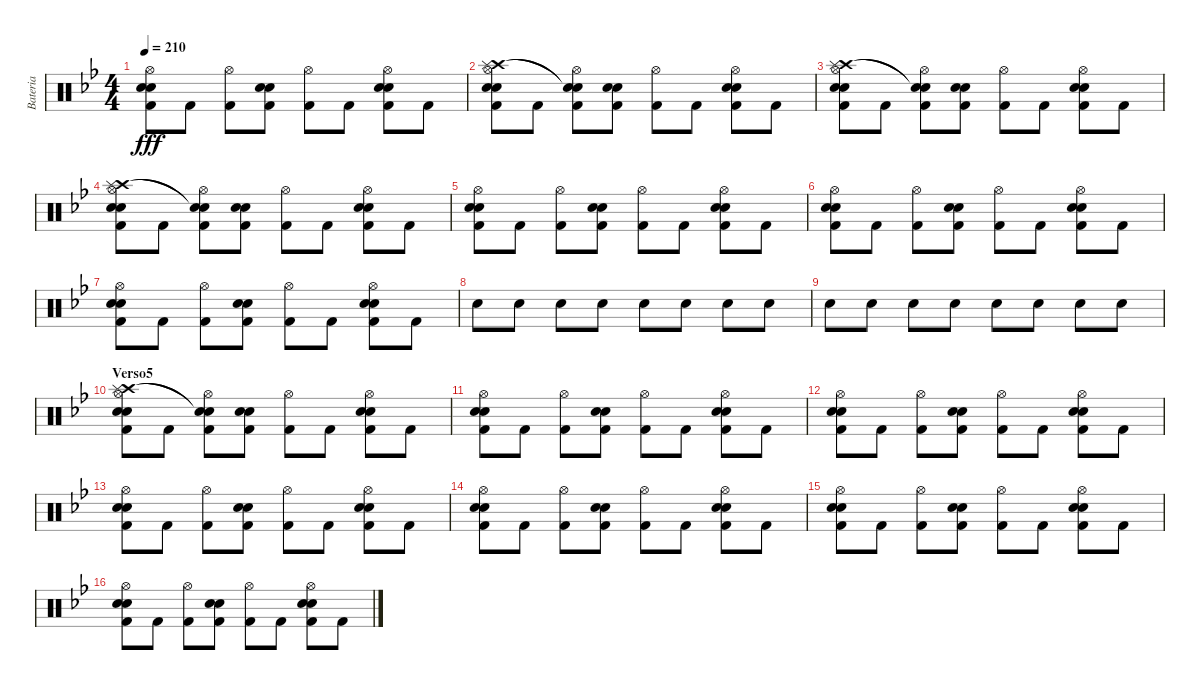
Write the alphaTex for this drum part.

\track ("Bateria" "Bateria") {instrument percussion}
\staff {score}
\articulation defaults
\ts (4 4)
\tempo 210
\clef neutral
\ks gminor
("Hi-Hat (open)" "Snare (hit) 2" "Kick (hit) 2" "Electric Snare (hit)").8{dy fff} "Kick (hit) 2".8 ("Hi-Hat (open)" "Kick (hit) 2").8 ("Snare (hit) 2" "Kick (hit) 2" "Electric Snare (hit)").8 ("Hi-Hat (open)" "Kick (hit) 2").8 "Kick (hit) 2".8 ("Hi-Hat (open)" "Snare (hit) 2" "Kick (hit) 2" "Electric Snare (hit)").8 "Kick (hit) 2".8 |
("Hi-Hat (open)" "Crash high (hit)" "Splash (hit)" "Snare (hit) 2" "Kick (hit) 2" "Electric Snare (hit)").8 "Kick (hit) 2".8 ("Hi-Hat (open)" "Snare (hit)"{t} "Snare (hit)"{t} "Kick (hit) 2").8 ("Snare (hit) 2" "Kick (hit) 2" "Electric Snare (hit)").8 ("Hi-Hat (open)" "Kick (hit) 2").8 "Kick (hit) 2".8 ("Hi-Hat (open)" "Snare (hit) 2" "Kick (hit) 2" "Electric Snare (hit)").8 "Kick (hit) 2".8 |
("Hi-Hat (open)" "Crash high (hit)" "Splash (hit)" "Snare (hit) 2" "Kick (hit) 2" "Electric Snare (hit)").8 "Kick (hit) 2".8 ("Hi-Hat (open)" "Snare (hit)"{t} "Snare (hit)"{t} "Kick (hit) 2").8 ("Snare (hit) 2" "Kick (hit) 2" "Electric Snare (hit)").8 ("Hi-Hat (open)" "Kick (hit) 2").8 "Kick (hit) 2".8 ("Hi-Hat (open)" "Snare (hit) 2" "Kick (hit) 2" "Electric Snare (hit)").8 "Kick (hit) 2".8 |
("Hi-Hat (open)" "Crash high (hit)" "Splash (hit)" "Snare (hit) 2" "Kick (hit) 2" "Electric Snare (hit)").8 "Kick (hit) 2".8 ("Hi-Hat (open)" "Snare (hit)"{t} "Snare (hit)"{t} "Kick (hit) 2").8 ("Snare (hit) 2" "Kick (hit) 2" "Electric Snare (hit)").8 ("Hi-Hat (open)" "Kick (hit) 2").8 "Kick (hit) 2".8 ("Hi-Hat (open)" "Snare (hit) 2" "Kick (hit) 2" "Electric Snare (hit)").8 "Kick (hit) 2".8 |
("Hi-Hat (open)" "Snare (hit) 2" "Kick (hit) 2" "Electric Snare (hit)").8 "Kick (hit) 2".8 ("Hi-Hat (open)" "Kick (hit) 2").8 ("Snare (hit) 2" "Kick (hit) 2" "Electric Snare (hit)").8 ("Hi-Hat (open)" "Kick (hit) 2").8 "Kick (hit) 2".8 ("Hi-Hat (open)" "Snare (hit) 2" "Kick (hit) 2" "Electric Snare (hit)").8 "Kick (hit) 2".8 |
("Hi-Hat (open)" "Snare (hit) 2" "Kick (hit) 2" "Electric Snare (hit)").8 "Kick (hit) 2".8 ("Hi-Hat (open)" "Kick (hit) 2").8 ("Snare (hit) 2" "Kick (hit) 2" "Electric Snare (hit)").8 ("Hi-Hat (open)" "Kick (hit) 2").8 "Kick (hit) 2".8 ("Hi-Hat (open)" "Snare (hit) 2" "Kick (hit) 2" "Electric Snare (hit)").8 "Kick (hit) 2".8 |
("Hi-Hat (open)" "Snare (hit) 2" "Kick (hit) 2" "Electric Snare (hit)").8 "Kick (hit) 2".8 ("Hi-Hat (open)" "Kick (hit) 2").8 ("Snare (hit) 2" "Kick (hit) 2" "Electric Snare (hit)").8 ("Hi-Hat (open)" "Kick (hit) 2").8 "Kick (hit) 2".8 ("Hi-Hat (open)" "Snare (hit) 2" "Kick (hit) 2" "Electric Snare (hit)").8 "Kick (hit) 2".8 |
"Snare (hit) 2".8 "Electric Snare (hit)".8 "Electric Snare (hit)".8 "Snare (hit) 2".8 "Electric Snare (hit)".8 "Electric Snare (hit)".8 "Snare (hit) 2".8 "Electric Snare (hit)".8 |
"Electric Snare (hit)".8 "Snare (hit) 2".8 "Snare (hit) 2".8 "Snare (hit) 2".8 "Snare (hit) 2".8 "Snare (hit) 2".8 "Snare (hit) 2".8 "Snare (hit) 2".8 |
\section ("" "Verso5")
("Hi-Hat (open)" "Crash high (hit)" "Splash (hit)" "Snare (hit) 2" "Electric Snare (hit)" "Kick (hit) 2").8 "Kick (hit) 2".8 ("Hi-Hat (open)" "Snare (hit)"{t} "Snare (hit)"{t} "Kick (hit) 2").8 ("Snare (hit) 2" "Electric Snare (hit)" "Kick (hit) 2").8 ("Hi-Hat (open)" "Kick (hit) 2").8 "Kick (hit) 2".8 ("Hi-Hat (open)" "Snare (hit) 2" "Electric Snare (hit)" "Kick (hit) 2").8 "Kick (hit) 2".8 |
("Hi-Hat (open)" "Snare (hit) 2" "Kick (hit) 2" "Electric Snare (hit)").8 "Kick (hit) 2".8 ("Hi-Hat (open)" "Kick (hit) 2").8 ("Snare (hit) 2" "Kick (hit) 2" "Electric Snare (hit)").8 ("Hi-Hat (open)" "Kick (hit) 2").8 "Kick (hit) 2".8 ("Hi-Hat (open)" "Snare (hit) 2" "Kick (hit) 2" "Electric Snare (hit)").8 "Kick (hit) 2".8 |
("Hi-Hat (open)" "Snare (hit) 2" "Kick (hit) 2" "Electric Snare (hit)").8 "Kick (hit) 2".8 ("Hi-Hat (open)" "Kick (hit) 2").8 ("Snare (hit) 2" "Kick (hit) 2" "Electric Snare (hit)").8 ("Hi-Hat (open)" "Kick (hit) 2").8 "Kick (hit) 2".8 ("Hi-Hat (open)" "Snare (hit) 2" "Kick (hit) 2" "Electric Snare (hit)").8 "Kick (hit) 2".8 |
("Hi-Hat (open)" "Snare (hit) 2" "Kick (hit) 2" "Electric Snare (hit)").8 "Kick (hit) 2".8 ("Hi-Hat (open)" "Kick (hit) 2").8 ("Snare (hit) 2" "Kick (hit) 2" "Electric Snare (hit)").8 ("Hi-Hat (open)" "Kick (hit) 2").8 "Kick (hit) 2".8 ("Hi-Hat (open)" "Snare (hit) 2" "Kick (hit) 2" "Electric Snare (hit)").8 "Kick (hit) 2".8 |
("Hi-Hat (open)" "Snare (hit) 2" "Kick (hit) 2" "Electric Snare (hit)").8 "Kick (hit) 2".8 ("Hi-Hat (open)" "Kick (hit) 2").8 ("Snare (hit) 2" "Kick (hit) 2" "Electric Snare (hit)").8 ("Hi-Hat (open)" "Kick (hit) 2").8 "Kick (hit) 2".8 ("Hi-Hat (open)" "Snare (hit) 2" "Kick (hit) 2" "Electric Snare (hit)").8 "Kick (hit) 2".8 |
("Hi-Hat (open)" "Snare (hit) 2" "Kick (hit) 2" "Electric Snare (hit)").8 "Kick (hit) 2".8 ("Hi-Hat (open)" "Kick (hit) 2").8 ("Snare (hit) 2" "Kick (hit) 2" "Electric Snare (hit)").8 ("Hi-Hat (open)" "Kick (hit) 2").8 "Kick (hit) 2".8 ("Hi-Hat (open)" "Snare (hit) 2" "Kick (hit) 2" "Electric Snare (hit)").8 "Kick (hit) 2".8 |
("Hi-Hat (open)" "Snare (hit) 2" "Kick (hit) 2" "Electric Snare (hit)").8 "Kick (hit) 2".8 ("Hi-Hat (open)" "Kick (hit) 2").8 ("Snare (hit) 2" "Kick (hit) 2" "Electric Snare (hit)").8 ("Hi-Hat (open)" "Kick (hit) 2").8 "Kick (hit) 2".8 ("Hi-Hat (open)" "Snare (hit) 2" "Kick (hit) 2" "Electric Snare (hit)").8 "Kick (hit) 2".8
